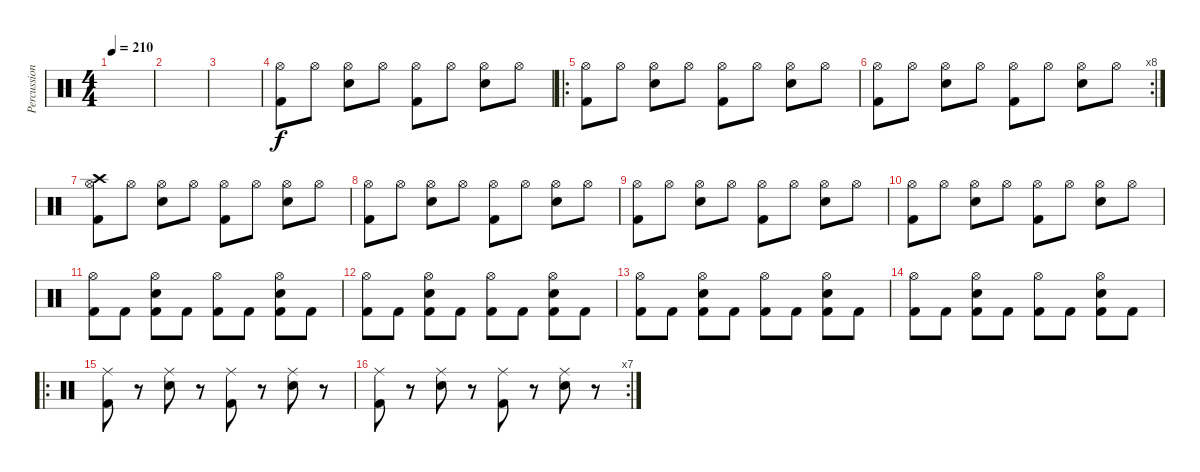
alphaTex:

\track ("Percussion" "Percussion") {instrument percussion}
\staff {score}
\articulation defaults
\ts (4 4)
\tempo 210
\clef neutral
\ks c
|
|
|
("Hi-Hat (open)" "Kick (hit) 2").8 "Hi-Hat (open)".8 ("Hi-Hat (open)" "Snare (hit) 2").8 "Hi-Hat (open)".8 ("Hi-Hat (open)" "Kick (hit) 2").8 "Hi-Hat (open)".8 ("Hi-Hat (open)" "Snare (hit) 2").8 "Hi-Hat (open)".8 |
\ro
("Hi-Hat (open)" "Kick (hit) 2").8 "Hi-Hat (open)".8 ("Hi-Hat (open)" "Snare (hit) 2").8 "Hi-Hat (open)".8 ("Hi-Hat (open)" "Kick (hit) 2").8 "Hi-Hat (open)".8 ("Hi-Hat (open)" "Snare (hit) 2").8 "Hi-Hat (open)".8 |
\rc 8
("Hi-Hat (open)" "Kick (hit) 2").8 "Hi-Hat (open)".8 ("Hi-Hat (open)" "Snare (hit) 2").8 "Hi-Hat (open)".8 ("Hi-Hat (open)" "Kick (hit) 2").8 "Hi-Hat (open)".8 ("Hi-Hat (open)" "Snare (hit) 2").8 "Hi-Hat (open)".8 |
("Hi-Hat (open)" "Crash high (hit)" "Kick (hit) 2").8 "Hi-Hat (open)".8 ("Hi-Hat (open)" "Snare (hit) 2").8 "Hi-Hat (open)".8 ("Hi-Hat (open)" "Kick (hit) 2").8 "Hi-Hat (open)".8 ("Hi-Hat (open)" "Snare (hit) 2").8 "Hi-Hat (open)".8 |
("Hi-Hat (open)" "Kick (hit) 2").8 "Hi-Hat (open)".8 ("Hi-Hat (open)" "Snare (hit) 2").8 "Hi-Hat (open)".8 ("Hi-Hat (open)" "Kick (hit) 2").8 "Hi-Hat (open)".8 ("Hi-Hat (open)" "Snare (hit) 2").8 "Hi-Hat (open)".8 |
("Hi-Hat (open)" "Kick (hit) 2").8 "Hi-Hat (open)".8 ("Hi-Hat (open)" "Snare (hit) 2").8 "Hi-Hat (open)".8 ("Hi-Hat (open)" "Kick (hit) 2").8 "Hi-Hat (open)".8 ("Hi-Hat (open)" "Snare (hit) 2").8 "Hi-Hat (open)".8 |
("Hi-Hat (open)" "Kick (hit) 2").8 "Hi-Hat (open)".8 ("Hi-Hat (open)" "Snare (hit) 2").8 "Hi-Hat (open)".8 ("Hi-Hat (open)" "Kick (hit) 2").8 "Hi-Hat (open)".8 ("Hi-Hat (open)" "Snare (hit) 2").8 "Hi-Hat (open)".8 |
("Hi-Hat (open)" "Kick (hit) 2").8 "Kick (hit) 2".8 ("Hi-Hat (open)" "Snare (hit) 2" "Kick (hit) 2").8 "Kick (hit) 2".8 ("Hi-Hat (open)" "Kick (hit) 2").8 "Kick (hit) 2".8 ("Hi-Hat (open)" "Snare (hit) 2" "Kick (hit) 2").8 "Kick (hit) 2".8 |
("Hi-Hat (open)" "Kick (hit) 2").8 "Kick (hit) 2".8 ("Hi-Hat (open)" "Snare (hit) 2" "Kick (hit) 2").8 "Kick (hit) 2".8 ("Hi-Hat (open)" "Kick (hit) 2").8 "Kick (hit) 2".8 ("Hi-Hat (open)" "Snare (hit) 2" "Kick (hit) 2").8 "Kick (hit) 2".8 |
("Hi-Hat (open)" "Kick (hit) 2").8 "Kick (hit) 2".8 ("Hi-Hat (open)" "Snare (hit) 2" "Kick (hit) 2").8 "Kick (hit) 2".8 ("Hi-Hat (open)" "Kick (hit) 2").8 "Kick (hit) 2".8 ("Hi-Hat (open)" "Snare (hit) 2" "Kick (hit) 2").8 "Kick (hit) 2".8 |
("Hi-Hat (open)" "Kick (hit) 2").8 "Kick (hit) 2".8 ("Hi-Hat (open)" "Snare (hit) 2" "Kick (hit) 2").8 "Kick (hit) 2".8 ("Hi-Hat (open)" "Kick (hit) 2").8 "Kick (hit) 2".8 ("Hi-Hat (open)" "Snare (hit) 2" "Kick (hit) 2").8 "Kick (hit) 2".8 |
\ro
("Ride (middle)" "Kick (hit) 2").8 r.8 ("Ride (middle)" "Snare (hit) 2").8 r.8 ("Ride (middle)" "Kick (hit) 2").8 r.8 ("Ride (middle)" "Snare (hit) 2").8 r.8 |
\rc 7
("Ride (middle)" "Kick (hit) 2").8 r.8 ("Ride (middle)" "Snare (hit) 2").8 r.8 ("Ride (middle)" "Kick (hit) 2").8 r.8 ("Ride (middle)" "Snare (hit) 2").8 r.8
